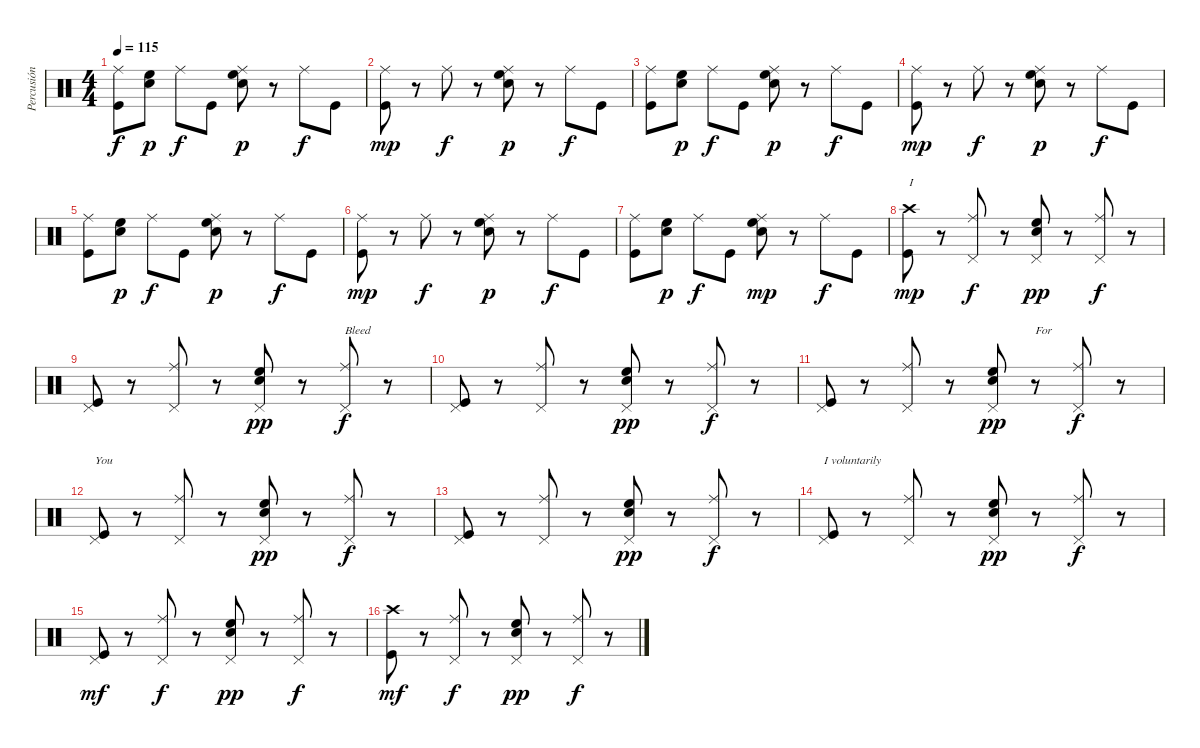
\track ("Percusión" "Percusión") {instrument percussion}
\staff {score}
\articulation defaults
\ts (4 4)
\tempo 115
\clef neutral
\ks c
("Ride (middle)" "Kick (hit)").8{dy f} ("High Floor Tom (hit)" "Electric Snare (hit)").8{dy p} "Ride (middle)".8{dy f} "Kick (hit)".8 ("Ride (middle)" "High Floor Tom (hit)" "Electric Snare (hit)").8{dy p} r.8 "Ride (middle)".8{dy f} "Kick (hit)".8 |
("Ride (middle)" "Kick (hit)").8{dy mp} r.8 "Ride (middle)".8{dy f} r.8 ("Ride (middle)" "Electric Snare (hit)" "High Floor Tom (hit)").8{dy p} r.8 "Ride (middle)".8{dy f} "Kick (hit)".8 |
("Ride (middle)" "Kick (hit)").8 ("High Floor Tom (hit)" "Electric Snare (hit)").8{dy p} "Ride (middle)".8{dy f} "Kick (hit)".8 ("Ride (middle)" "High Floor Tom (hit)" "Electric Snare (hit)").8{dy p} r.8 "Ride (middle)".8{dy f} "Kick (hit)".8 |
("Ride (middle)" "Kick (hit)").8{dy mp} r.8 "Ride (middle)".8{dy f} r.8 ("Ride (middle)" "Electric Snare (hit)" "High Floor Tom (hit)").8{dy p} r.8 "Ride (middle)".8{dy f} "Kick (hit)".8 |
("Ride (middle)" "Kick (hit)").8 ("High Floor Tom (hit)" "Electric Snare (hit)").8{dy p} "Ride (middle)".8{dy f} "Kick (hit)".8 ("Ride (middle)" "High Floor Tom (hit)" "Electric Snare (hit)").8{dy p} r.8 "Ride (middle)".8{dy f} "Kick (hit)".8 |
("Ride (middle)" "Kick (hit)").8{dy mp} r.8 "Ride (middle)".8{dy f} r.8 ("Ride (middle)" "Electric Snare (hit)" "High Floor Tom (hit)").8{dy p} r.8 "Ride (middle)".8{dy f} "Kick (hit)".8 |
("Ride (middle)" "Kick (hit)").8 ("High Floor Tom (hit)" "Electric Snare (hit)").8{dy p} "Ride (middle)".8{dy f} "Kick (hit)".8 ("Ride (middle)" "High Floor Tom (hit)" "Electric Snare (hit)").8{dy mp} r.8 "Ride (middle)".8{dy f} "Kick (hit)".8 |
("Crash high (hit)" "Kick (hit)").8{txt "I" dy mp} r.8 ("Pedal Hi-Hat (hit)" "Ride (middle)").8{dy f} r.8 ("Pedal Hi-Hat (hit)" "Electric Snare (hit)" "High Floor Tom (hit)").8{dy pp} r.8 ("Pedal Hi-Hat (hit)" "Ride (middle)").8{dy f} r.8 |
("Pedal Hi-Hat (hit)" "Kick (hit)").8 r.8 ("Pedal Hi-Hat (hit)" "Ride (middle)").8 r.8 ("Pedal Hi-Hat (hit)" "High Floor Tom (hit)" "Electric Snare (hit)").8{dy pp} r.8 ("Pedal Hi-Hat (hit)" "Ride (middle)").8{txt "Bleed" dy f} r.8 |
("Pedal Hi-Hat (hit)" "Kick (hit)").8 r.8 ("Pedal Hi-Hat (hit)" "Ride (middle)").8 r.8 ("Pedal Hi-Hat (hit)" "High Floor Tom (hit)" "Electric Snare (hit)").8{dy pp} r.8 ("Pedal Hi-Hat (hit)" "Ride (middle)").8{dy f} r.8 |
("Pedal Hi-Hat (hit)" "Kick (hit)").8 r.8 ("Pedal Hi-Hat (hit)" "Ride (middle)").8 r.8 ("Pedal Hi-Hat (hit)" "High Floor Tom (hit)" "Electric Snare (hit)").8{dy pp} r.8{txt "For"} ("Pedal Hi-Hat (hit)" "Ride (middle)").8{dy f} r.8 |
("Pedal Hi-Hat (hit)" "Kick (hit)").8{txt "You"} r.8 ("Pedal Hi-Hat (hit)" "Ride (middle)").8 r.8 ("Pedal Hi-Hat (hit)" "High Floor Tom (hit)" "Electric Snare (hit)").8{dy pp} r.8 ("Pedal Hi-Hat (hit)" "Ride (middle)").8{dy f} r.8 |
("Pedal Hi-Hat (hit)" "Kick (hit)").8 r.8 ("Pedal Hi-Hat (hit)" "Ride (middle)").8 r.8 ("Pedal Hi-Hat (hit)" "High Floor Tom (hit)" "Electric Snare (hit)").8{dy pp} r.8 ("Pedal Hi-Hat (hit)" "Ride (middle)").8{dy f} r.8 |
("Pedal Hi-Hat (hit)" "Kick (hit)").8{txt "I voluntarily"} r.8 ("Pedal Hi-Hat (hit)" "Ride (middle)").8 r.8 ("Pedal Hi-Hat (hit)" "High Floor Tom (hit)" "Electric Snare (hit)").8{dy pp} r.8 ("Pedal Hi-Hat (hit)" "Ride (middle)").8{dy f} r.8 |
("Pedal Hi-Hat (hit)" "Kick (hit)").8{dy mf} r.8 ("Pedal Hi-Hat (hit)" "Ride (middle)").8{dy f} r.8 ("Pedal Hi-Hat (hit)" "High Floor Tom (hit)" "Electric Snare (hit)").8{dy pp} r.8 ("Pedal Hi-Hat (hit)" "Ride (middle)").8{dy f} r.8 |
("Crash high (hit)" "Kick (hit)").8{dy mf} r.8 ("Pedal Hi-Hat (hit)" "Ride (middle)").8{dy f} r.8 ("Pedal Hi-Hat (hit)" "High Floor Tom (hit)" "Electric Snare (hit)").8{dy pp} r.8 ("Pedal Hi-Hat (hit)" "Ride (middle)").8{dy f} r.8
